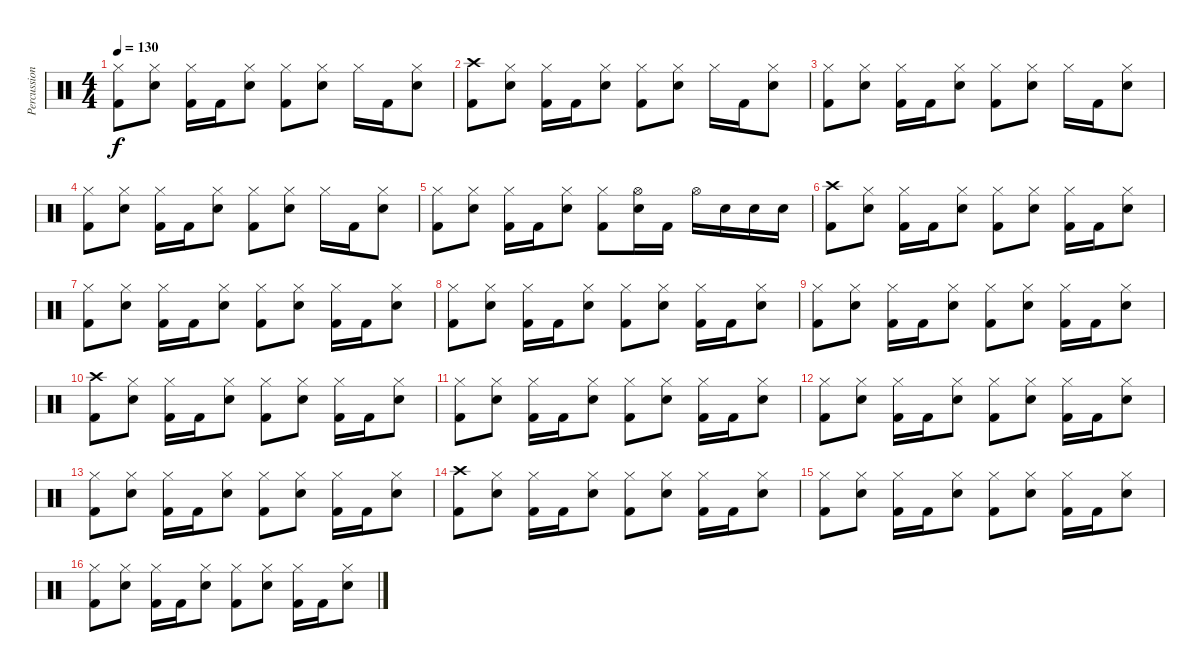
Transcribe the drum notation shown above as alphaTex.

\track ("Percussion" "Percussion") {instrument percussion}
\staff {score}
\articulation defaults
\ts (4 4)
\tempo 130
\clef neutral
\ks c
("Hi-Hat (closed)" "Kick (hit) 2").8{dy f} ("Hi-Hat (closed)" "Electric Snare (hit)").8 ("Hi-Hat (closed)" "Kick (hit) 2").16 "Kick (hit) 2".16 ("Hi-Hat (closed)" "Electric Snare (hit)").8 ("Hi-Hat (closed)" "Kick (hit) 2").8 ("Hi-Hat (closed)" "Electric Snare (hit)").8 "Hi-Hat (closed)".16 "Kick (hit) 2".16 ("Hi-Hat (closed)" "Electric Snare (hit)").8 |
("Crash high (hit)" "Kick (hit) 2").8 ("Hi-Hat (closed)" "Electric Snare (hit)").8 ("Hi-Hat (closed)" "Kick (hit) 2").16 "Kick (hit) 2".16 ("Hi-Hat (closed)" "Electric Snare (hit)").8 ("Hi-Hat (closed)" "Kick (hit) 2").8 ("Hi-Hat (closed)" "Electric Snare (hit)").8 "Hi-Hat (closed)".16 "Kick (hit) 2".16 ("Hi-Hat (closed)" "Electric Snare (hit)").8 |
("Hi-Hat (closed)" "Kick (hit) 2").8 ("Hi-Hat (closed)" "Electric Snare (hit)").8 ("Hi-Hat (closed)" "Kick (hit) 2").16 "Kick (hit) 2".16 ("Hi-Hat (closed)" "Electric Snare (hit)").8 ("Hi-Hat (closed)" "Kick (hit) 2").8 ("Hi-Hat (closed)" "Electric Snare (hit)").8 "Hi-Hat (closed)".16 "Kick (hit) 2".16 ("Hi-Hat (closed)" "Electric Snare (hit)").8 |
("Hi-Hat (closed)" "Kick (hit) 2").8 ("Hi-Hat (closed)" "Electric Snare (hit)").8 ("Hi-Hat (closed)" "Kick (hit) 2").16 "Kick (hit) 2".16 ("Hi-Hat (closed)" "Electric Snare (hit)").8 ("Hi-Hat (closed)" "Kick (hit) 2").8 ("Hi-Hat (closed)" "Electric Snare (hit)").8 "Hi-Hat (closed)".16 "Kick (hit) 2".16 ("Hi-Hat (closed)" "Electric Snare (hit)").8 |
("Hi-Hat (closed)" "Kick (hit) 2").8 ("Hi-Hat (closed)" "Electric Snare (hit)").8 ("Hi-Hat (closed)" "Kick (hit) 2").16 "Kick (hit) 2".16 ("Hi-Hat (closed)" "Electric Snare (hit)").8 ("Hi-Hat (closed)" "Kick (hit) 2").8 ("Hi-Hat (open)" "Electric Snare (hit)").16 "Kick (hit) 2".16 "Hi-Hat (open)".16 "Electric Snare (hit)".16 "Electric Snare (hit)".16 "Electric Snare (hit)".16 |
("Crash high (hit)" "Kick (hit) 2").8 ("Hi-Hat (closed)" "Electric Snare (hit)").8 ("Hi-Hat (closed)" "Kick (hit) 2").16 "Kick (hit) 2".16 ("Hi-Hat (closed)" "Electric Snare (hit)").8 ("Hi-Hat (closed)" "Kick (hit) 2").8 ("Hi-Hat (closed)" "Electric Snare (hit)").8 ("Hi-Hat (closed)" "Kick (hit) 2").16 "Kick (hit) 2".16 ("Hi-Hat (closed)" "Electric Snare (hit)").8 |
("Hi-Hat (closed)" "Kick (hit) 2").8 ("Hi-Hat (closed)" "Electric Snare (hit)").8 ("Hi-Hat (closed)" "Kick (hit) 2").16 "Kick (hit) 2".16 ("Hi-Hat (closed)" "Electric Snare (hit)").8 ("Hi-Hat (closed)" "Kick (hit) 2").8 ("Hi-Hat (closed)" "Electric Snare (hit)").8 ("Hi-Hat (closed)" "Kick (hit) 2").16 "Kick (hit) 2".16 ("Hi-Hat (closed)" "Electric Snare (hit)").8 |
("Hi-Hat (closed)" "Kick (hit) 2").8 ("Hi-Hat (closed)" "Electric Snare (hit)").8 ("Hi-Hat (closed)" "Kick (hit) 2").16 "Kick (hit) 2".16 ("Hi-Hat (closed)" "Electric Snare (hit)").8 ("Hi-Hat (closed)" "Kick (hit) 2").8 ("Hi-Hat (closed)" "Electric Snare (hit)").8 ("Hi-Hat (closed)" "Kick (hit) 2").16 "Kick (hit) 2".16 ("Hi-Hat (closed)" "Electric Snare (hit)").8 |
("Hi-Hat (closed)" "Kick (hit) 2").8 ("Hi-Hat (closed)" "Electric Snare (hit)").8 ("Hi-Hat (closed)" "Kick (hit) 2").16 "Kick (hit) 2".16 ("Hi-Hat (closed)" "Electric Snare (hit)").8 ("Hi-Hat (closed)" "Kick (hit) 2").8 ("Hi-Hat (closed)" "Electric Snare (hit)").8 ("Hi-Hat (closed)" "Kick (hit) 2").16 "Kick (hit) 2".16 ("Hi-Hat (closed)" "Electric Snare (hit)").8 |
("Crash high (hit)" "Kick (hit) 2").8 ("Hi-Hat (closed)" "Electric Snare (hit)").8 ("Hi-Hat (closed)" "Kick (hit) 2").16 "Kick (hit) 2".16 ("Hi-Hat (closed)" "Electric Snare (hit)").8 ("Hi-Hat (closed)" "Kick (hit) 2").8 ("Hi-Hat (closed)" "Electric Snare (hit)").8 ("Hi-Hat (closed)" "Kick (hit) 2").16 "Kick (hit) 2".16 ("Hi-Hat (closed)" "Electric Snare (hit)").8 |
("Hi-Hat (closed)" "Kick (hit) 2").8 ("Hi-Hat (closed)" "Electric Snare (hit)").8 ("Hi-Hat (closed)" "Kick (hit) 2").16 "Kick (hit) 2".16 ("Hi-Hat (closed)" "Electric Snare (hit)").8 ("Hi-Hat (closed)" "Kick (hit) 2").8 ("Hi-Hat (closed)" "Electric Snare (hit)").8 ("Hi-Hat (closed)" "Kick (hit) 2").16 "Kick (hit) 2".16 ("Hi-Hat (closed)" "Electric Snare (hit)").8 |
("Hi-Hat (closed)" "Kick (hit) 2").8 ("Hi-Hat (closed)" "Electric Snare (hit)").8 ("Hi-Hat (closed)" "Kick (hit) 2").16 "Kick (hit) 2".16 ("Hi-Hat (closed)" "Electric Snare (hit)").8 ("Hi-Hat (closed)" "Kick (hit) 2").8 ("Hi-Hat (closed)" "Electric Snare (hit)").8 ("Hi-Hat (closed)" "Kick (hit) 2").16 "Kick (hit) 2".16 ("Hi-Hat (closed)" "Electric Snare (hit)").8 |
("Hi-Hat (closed)" "Kick (hit) 2").8 ("Hi-Hat (closed)" "Electric Snare (hit)").8 ("Hi-Hat (closed)" "Kick (hit) 2").16 "Kick (hit) 2".16 ("Hi-Hat (closed)" "Electric Snare (hit)").8 ("Hi-Hat (closed)" "Kick (hit) 2").8 ("Hi-Hat (closed)" "Electric Snare (hit)").8 ("Hi-Hat (closed)" "Kick (hit) 2").16 "Kick (hit) 2".16 ("Hi-Hat (closed)" "Electric Snare (hit)").8 |
("Crash high (hit)" "Kick (hit) 2").8 ("Hi-Hat (closed)" "Electric Snare (hit)").8 ("Hi-Hat (closed)" "Kick (hit) 2").16 "Kick (hit) 2".16 ("Hi-Hat (closed)" "Electric Snare (hit)").8 ("Hi-Hat (closed)" "Kick (hit) 2").8 ("Hi-Hat (closed)" "Electric Snare (hit)").8 ("Hi-Hat (closed)" "Kick (hit) 2").16 "Kick (hit) 2".16 ("Hi-Hat (closed)" "Electric Snare (hit)").8 |
("Hi-Hat (closed)" "Kick (hit) 2").8 ("Hi-Hat (closed)" "Electric Snare (hit)").8 ("Hi-Hat (closed)" "Kick (hit) 2").16 "Kick (hit) 2".16 ("Hi-Hat (closed)" "Electric Snare (hit)").8 ("Hi-Hat (closed)" "Kick (hit) 2").8 ("Hi-Hat (closed)" "Electric Snare (hit)").8 ("Hi-Hat (closed)" "Kick (hit) 2").16 "Kick (hit) 2".16 ("Hi-Hat (closed)" "Electric Snare (hit)").8 |
("Hi-Hat (closed)" "Kick (hit) 2").8 ("Hi-Hat (closed)" "Electric Snare (hit)").8 ("Hi-Hat (closed)" "Kick (hit) 2").16 "Kick (hit) 2".16 ("Hi-Hat (closed)" "Electric Snare (hit)").8 ("Hi-Hat (closed)" "Kick (hit) 2").8 ("Hi-Hat (closed)" "Electric Snare (hit)").8 ("Hi-Hat (closed)" "Kick (hit) 2").16 "Kick (hit) 2".16 ("Hi-Hat (closed)" "Electric Snare (hit)").8
